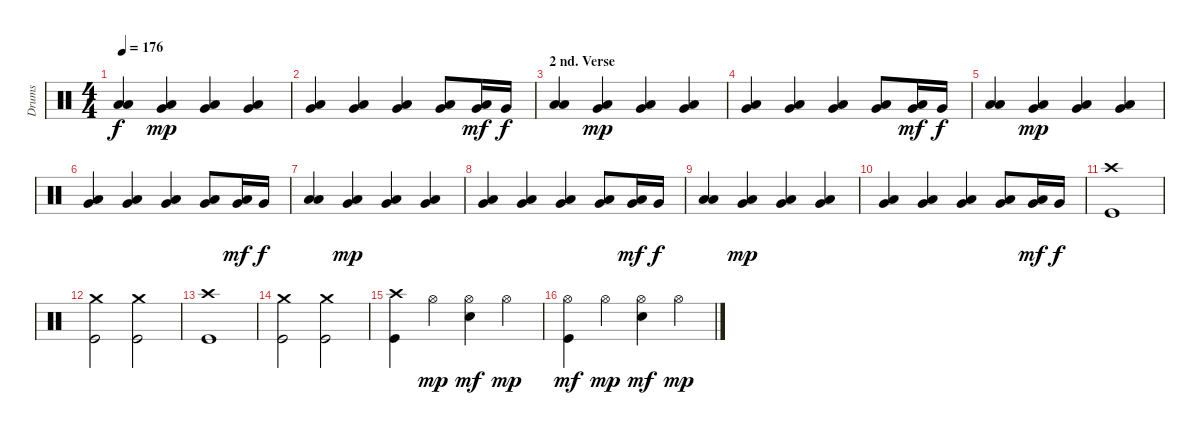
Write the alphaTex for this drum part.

\track ("Drums" "Drums") {instrument percussion}
\staff {score}
\articulation defaults
\ts (4 4)
\tempo 176
\clef neutral
\ks c
("Low Tom (hit)" "Low Floor Tom (hit)").4{dy f} ("Very Low Tom (hit)" "Low Floor Tom (hit)").4{dy mp} ("Very Low Tom (hit)" "Low Floor Tom (hit)").4 ("Very Low Tom (hit)" "Low Floor Tom (hit)").4 |
("Very Low Tom (hit)" "Low Floor Tom (hit)").4 ("Very Low Tom (hit)" "Low Floor Tom (hit)").4 ("Very Low Tom (hit)" "Low Floor Tom (hit)").4 ("Very Low Tom (hit)" "Low Floor Tom (hit)").8 ("Very Low Tom (hit)" "Low Floor Tom (hit)").16{dy mf} "Very Low Tom (hit)".16{dy f} |
\section ("" "2 nd. Verse")
("Low Tom (hit)" "Low Floor Tom (hit)").4 ("Very Low Tom (hit)" "Low Floor Tom (hit)").4{dy mp} ("Very Low Tom (hit)" "Low Floor Tom (hit)").4 ("Very Low Tom (hit)" "Low Floor Tom (hit)").4 |
("Very Low Tom (hit)" "Low Floor Tom (hit)").4 ("Very Low Tom (hit)" "Low Floor Tom (hit)").4 ("Very Low Tom (hit)" "Low Floor Tom (hit)").4 ("Very Low Tom (hit)" "Low Floor Tom (hit)").8 ("Very Low Tom (hit)" "Low Floor Tom (hit)").16{dy mf} "Very Low Tom (hit)".16{dy f} |
("Low Tom (hit)" "Low Floor Tom (hit)").4 ("Very Low Tom (hit)" "Low Floor Tom (hit)").4{dy mp} ("Very Low Tom (hit)" "Low Floor Tom (hit)").4 ("Very Low Tom (hit)" "Low Floor Tom (hit)").4 |
("Very Low Tom (hit)" "Low Floor Tom (hit)").4 ("Very Low Tom (hit)" "Low Floor Tom (hit)").4 ("Very Low Tom (hit)" "Low Floor Tom (hit)").4 ("Very Low Tom (hit)" "Low Floor Tom (hit)").8 ("Very Low Tom (hit)" "Low Floor Tom (hit)").16{dy mf} "Very Low Tom (hit)".16{dy f} |
("Low Tom (hit)" "Low Floor Tom (hit)").4 ("Very Low Tom (hit)" "Low Floor Tom (hit)").4{dy mp} ("Very Low Tom (hit)" "Low Floor Tom (hit)").4 ("Very Low Tom (hit)" "Low Floor Tom (hit)").4 |
("Very Low Tom (hit)" "Low Floor Tom (hit)").4 ("Very Low Tom (hit)" "Low Floor Tom (hit)").4 ("Very Low Tom (hit)" "Low Floor Tom (hit)").4 ("Very Low Tom (hit)" "Low Floor Tom (hit)").8 ("Very Low Tom (hit)" "Low Floor Tom (hit)").16{dy mf} "Very Low Tom (hit)".16{dy f} |
("Low Tom (hit)" "Low Floor Tom (hit)").4 ("Very Low Tom (hit)" "Low Floor Tom (hit)").4{dy mp} ("Very Low Tom (hit)" "Low Floor Tom (hit)").4 ("Very Low Tom (hit)" "Low Floor Tom (hit)").4 |
("Very Low Tom (hit)" "Low Floor Tom (hit)").4 ("Very Low Tom (hit)" "Low Floor Tom (hit)").4 ("Very Low Tom (hit)" "Low Floor Tom (hit)").4 ("Very Low Tom (hit)" "Low Floor Tom (hit)").8 ("Very Low Tom (hit)" "Low Floor Tom (hit)").16{dy mf} "Very Low Tom (hit)".16{dy f} |
("Crash high (hit)" "Kick (hit)").1 |
("Crash medium (hit)" "Kick (hit)").2 ("Crash medium (hit)" "Kick (hit)").2 |
("Crash high (hit)" "Kick (hit)").1 |
("Crash medium (hit)" "Kick (hit)").2 ("Crash medium (hit)" "Kick (hit)").2 |
("Crash high (hit)" "Kick (hit)").4 "Hi-Hat (open)".4{dy mp} ("Hi-Hat (open)" "Electric Snare (hit)").4{dy mf} "Hi-Hat (open)".4{dy mp} |
("Hi-Hat (open)" "Kick (hit)").4{dy mf} "Hi-Hat (open)".4{dy mp} ("Hi-Hat (open)" "Electric Snare (hit)").4{dy mf} "Hi-Hat (open)".4{dy mp}
